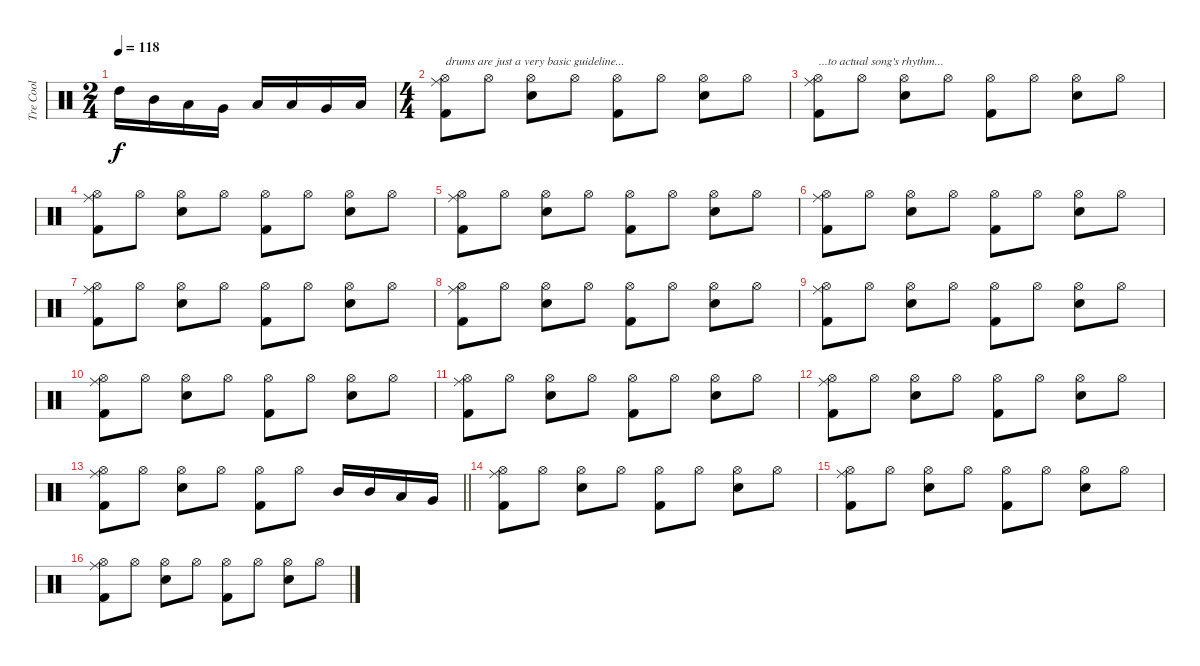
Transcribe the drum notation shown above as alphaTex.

\track ("Tre Cool" "Tre Cool") {instrument percussion}
\staff {score}
\articulation defaults
\ts (2 4)
\tempo 118
\clef neutral
\ks c "High Tom (hit)".16{dy f} "Mid Tom (hit)".16 "Low Tom (hit)".16 "Very Low Tom (hit)".16 "Low Floor Tom (hit)".16 "Low Tom (hit)".16 "Very Low Tom (hit)".16 "Low Floor Tom (hit)".16
|
\ts (4 4)
("Hi-Hat (open)" "Ride (middle)" "Kick (hit) 2").8{txt "drums are just a very basic guideline..."} "Hi-Hat (open)".8 ("Hi-Hat (open)" "Snare (hit) 2").8 "Hi-Hat (open)".8 ("Hi-Hat (open)" "Kick (hit) 2").8 "Hi-Hat (open)".8 ("Hi-Hat (open)" "Snare (hit) 2").8 "Hi-Hat (open)".8 |
("Hi-Hat (open)" "Ride (middle)" "Kick (hit) 2").8{txt "...to actual song's rhythm..."} "Hi-Hat (open)".8 ("Hi-Hat (open)" "Snare (hit) 2").8 "Hi-Hat (open)".8 ("Hi-Hat (open)" "Kick (hit) 2").8 "Hi-Hat (open)".8 ("Hi-Hat (open)" "Snare (hit) 2").8 "Hi-Hat (open)".8 |
("Hi-Hat (open)" "Ride (middle)" "Kick (hit) 2").8 "Hi-Hat (open)".8 ("Hi-Hat (open)" "Snare (hit) 2").8 "Hi-Hat (open)".8 ("Hi-Hat (open)" "Kick (hit) 2").8 "Hi-Hat (open)".8 ("Hi-Hat (open)" "Snare (hit) 2").8 "Hi-Hat (open)".8 |
("Hi-Hat (open)" "Ride (middle)" "Kick (hit) 2").8 "Hi-Hat (open)".8 ("Hi-Hat (open)" "Snare (hit) 2").8 "Hi-Hat (open)".8 ("Hi-Hat (open)" "Kick (hit) 2").8 "Hi-Hat (open)".8 ("Hi-Hat (open)" "Snare (hit) 2").8 "Hi-Hat (open)".8 |
("Hi-Hat (open)" "Ride (middle)" "Kick (hit) 2").8 "Hi-Hat (open)".8 ("Hi-Hat (open)" "Snare (hit) 2").8 "Hi-Hat (open)".8 ("Hi-Hat (open)" "Kick (hit) 2").8 "Hi-Hat (open)".8 ("Hi-Hat (open)" "Snare (hit) 2").8 "Hi-Hat (open)".8 |
("Hi-Hat (open)" "Ride (middle)" "Kick (hit) 2").8 "Hi-Hat (open)".8 ("Hi-Hat (open)" "Snare (hit) 2").8 "Hi-Hat (open)".8 ("Hi-Hat (open)" "Kick (hit) 2").8 "Hi-Hat (open)".8 ("Hi-Hat (open)" "Snare (hit) 2").8 "Hi-Hat (open)".8 |
("Hi-Hat (open)" "Ride (middle)" "Kick (hit) 2").8 "Hi-Hat (open)".8 ("Hi-Hat (open)" "Snare (hit) 2").8 "Hi-Hat (open)".8 ("Hi-Hat (open)" "Kick (hit) 2").8 "Hi-Hat (open)".8 ("Hi-Hat (open)" "Snare (hit) 2").8 "Hi-Hat (open)".8 |
("Hi-Hat (open)" "Ride (middle)" "Kick (hit) 2").8 "Hi-Hat (open)".8 ("Hi-Hat (open)" "Snare (hit) 2").8 "Hi-Hat (open)".8 ("Hi-Hat (open)" "Kick (hit) 2").8 "Hi-Hat (open)".8 ("Hi-Hat (open)" "Snare (hit) 2").8 "Hi-Hat (open)".8 |
("Hi-Hat (open)" "Ride (middle)" "Kick (hit) 2").8 "Hi-Hat (open)".8 ("Hi-Hat (open)" "Snare (hit) 2").8 "Hi-Hat (open)".8 ("Hi-Hat (open)" "Kick (hit) 2").8 "Hi-Hat (open)".8 ("Hi-Hat (open)" "Snare (hit) 2").8 "Hi-Hat (open)".8 |
("Hi-Hat (open)" "Ride (middle)" "Kick (hit) 2").8 "Hi-Hat (open)".8 ("Hi-Hat (open)" "Snare (hit) 2").8 "Hi-Hat (open)".8 ("Hi-Hat (open)" "Kick (hit) 2").8 "Hi-Hat (open)".8 ("Hi-Hat (open)" "Snare (hit) 2").8 "Hi-Hat (open)".8 |
("Hi-Hat (open)" "Ride (middle)" "Kick (hit) 2").8 "Hi-Hat (open)".8 ("Hi-Hat (open)" "Snare (hit) 2").8 "Hi-Hat (open)".8 ("Hi-Hat (open)" "Kick (hit) 2").8 "Hi-Hat (open)".8 ("Hi-Hat (open)" "Snare (hit) 2").8 "Hi-Hat (open)".8 |
\barLineRight lightlight
("Hi-Hat (open)" "Ride (middle)" "Kick (hit) 2").8 "Hi-Hat (open)".8 ("Hi-Hat (open)" "Snare (hit) 2").8 "Hi-Hat (open)".8 ("Hi-Hat (open)" "Kick (hit) 2").8 "Hi-Hat (open)".8 "Mid Tom (hit)".16 "Mid Tom (hit)".16 "Low Tom (hit)".16 "Very Low Tom (hit)".16 |
("Hi-Hat (open)" "Ride (middle)" "Kick (hit) 2").8 "Hi-Hat (open)".8 ("Hi-Hat (open)" "Snare (hit) 2").8 "Hi-Hat (open)".8 ("Hi-Hat (open)" "Kick (hit) 2").8 "Hi-Hat (open)".8 ("Hi-Hat (open)" "Snare (hit) 2").8 "Hi-Hat (open)".8 |
("Hi-Hat (open)" "Ride (middle)" "Kick (hit) 2").8 "Hi-Hat (open)".8 ("Hi-Hat (open)" "Snare (hit) 2").8 "Hi-Hat (open)".8 ("Hi-Hat (open)" "Kick (hit) 2").8 "Hi-Hat (open)".8 ("Hi-Hat (open)" "Snare (hit) 2").8 "Hi-Hat (open)".8 |
("Hi-Hat (open)" "Ride (middle)" "Kick (hit) 2").8 "Hi-Hat (open)".8 ("Hi-Hat (open)" "Snare (hit) 2").8 "Hi-Hat (open)".8 ("Hi-Hat (open)" "Kick (hit) 2").8 "Hi-Hat (open)".8 ("Hi-Hat (open)" "Snare (hit) 2").8 "Hi-Hat (open)".8
